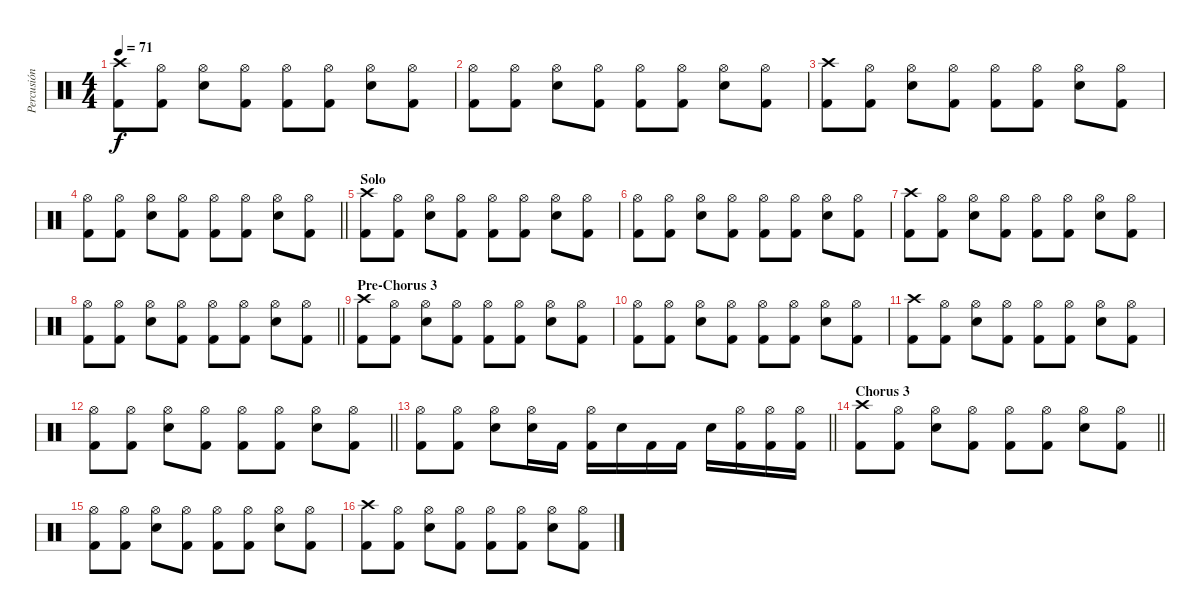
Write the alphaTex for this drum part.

\track ("Percusión" "Percusión") {instrument percussion}
\staff {score}
\articulation defaults
\ts (4 4)
\tempo 71
\clef neutral
\ks c
("Crash high (hit)" "Kick (hit) 2").8{dy f} ("Hi-Hat (open)" "Kick (hit) 2").8 ("Hi-Hat (open)" "Snare (hit) 2").8 ("Hi-Hat (open)" "Kick (hit) 2").8 ("Hi-Hat (open)" "Kick (hit) 2").8 ("Hi-Hat (open)" "Kick (hit) 2").8 ("Hi-Hat (open)" "Snare (hit) 2").8 ("Hi-Hat (open)" "Kick (hit) 2").8 |
("Hi-Hat (open)" "Kick (hit) 2").8 ("Hi-Hat (open)" "Kick (hit) 2").8 ("Hi-Hat (open)" "Snare (hit) 2").8 ("Hi-Hat (open)" "Kick (hit) 2").8 ("Hi-Hat (open)" "Kick (hit) 2").8 ("Hi-Hat (open)" "Kick (hit) 2").8 ("Hi-Hat (open)" "Snare (hit) 2").8 ("Hi-Hat (open)" "Kick (hit) 2").8 |
("Crash high (hit)" "Kick (hit) 2").8 ("Hi-Hat (open)" "Kick (hit) 2").8 ("Hi-Hat (open)" "Snare (hit) 2").8 ("Hi-Hat (open)" "Kick (hit) 2").8 ("Hi-Hat (open)" "Kick (hit) 2").8 ("Hi-Hat (open)" "Kick (hit) 2").8 ("Hi-Hat (open)" "Snare (hit) 2").8 ("Hi-Hat (open)" "Kick (hit) 2").8 |
\barLineRight lightlight
("Hi-Hat (open)" "Kick (hit) 2").8 ("Hi-Hat (open)" "Kick (hit) 2").8 ("Hi-Hat (open)" "Snare (hit) 2").8 ("Hi-Hat (open)" "Kick (hit) 2").8 ("Hi-Hat (open)" "Kick (hit) 2").8 ("Hi-Hat (open)" "Kick (hit) 2").8 ("Hi-Hat (open)" "Snare (hit) 2").8 ("Hi-Hat (open)" "Kick (hit) 2").8 |
\section ("" "Solo")
("Crash high (hit)" "Kick (hit) 2").8 ("Hi-Hat (open)" "Kick (hit) 2").8 ("Hi-Hat (open)" "Snare (hit) 2").8 ("Hi-Hat (open)" "Kick (hit) 2").8 ("Hi-Hat (open)" "Kick (hit) 2").8 ("Hi-Hat (open)" "Kick (hit) 2").8 ("Hi-Hat (open)" "Snare (hit) 2").8 ("Hi-Hat (open)" "Kick (hit) 2").8 |
("Hi-Hat (open)" "Kick (hit) 2").8 ("Hi-Hat (open)" "Kick (hit) 2").8 ("Hi-Hat (open)" "Snare (hit) 2").8 ("Hi-Hat (open)" "Kick (hit) 2").8 ("Hi-Hat (open)" "Kick (hit) 2").8 ("Hi-Hat (open)" "Kick (hit) 2").8 ("Hi-Hat (open)" "Snare (hit) 2").8 ("Hi-Hat (open)" "Kick (hit) 2").8 |
("Crash high (hit)" "Kick (hit) 2").8 ("Hi-Hat (open)" "Kick (hit) 2").8 ("Hi-Hat (open)" "Snare (hit) 2").8 ("Hi-Hat (open)" "Kick (hit) 2").8 ("Hi-Hat (open)" "Kick (hit) 2").8 ("Hi-Hat (open)" "Kick (hit) 2").8 ("Hi-Hat (open)" "Snare (hit) 2").8 ("Hi-Hat (open)" "Kick (hit) 2").8 |
\barLineRight lightlight
("Hi-Hat (open)" "Kick (hit) 2").8 ("Hi-Hat (open)" "Kick (hit) 2").8 ("Hi-Hat (open)" "Snare (hit) 2").8 ("Hi-Hat (open)" "Kick (hit) 2").8 ("Hi-Hat (open)" "Kick (hit) 2").8 ("Hi-Hat (open)" "Kick (hit) 2").8 ("Hi-Hat (open)" "Snare (hit) 2").8 ("Hi-Hat (open)" "Kick (hit) 2").8 |
\section ("" "Pre-Chorus 3")
("Crash high (hit)" "Kick (hit) 2").8 ("Hi-Hat (open)" "Kick (hit) 2").8 ("Hi-Hat (open)" "Snare (hit) 2").8 ("Hi-Hat (open)" "Kick (hit) 2").8 ("Hi-Hat (open)" "Kick (hit) 2").8 ("Hi-Hat (open)" "Kick (hit) 2").8 ("Hi-Hat (open)" "Snare (hit) 2").8 ("Hi-Hat (open)" "Kick (hit) 2").8 |
("Hi-Hat (open)" "Kick (hit) 2").8 ("Hi-Hat (open)" "Kick (hit) 2").8 ("Hi-Hat (open)" "Snare (hit) 2").8 ("Hi-Hat (open)" "Kick (hit) 2").8 ("Hi-Hat (open)" "Kick (hit) 2").8 ("Hi-Hat (open)" "Kick (hit) 2").8 ("Hi-Hat (open)" "Snare (hit) 2").8 ("Hi-Hat (open)" "Kick (hit) 2").8 |
("Crash high (hit)" "Kick (hit) 2").8 ("Hi-Hat (open)" "Kick (hit) 2").8 ("Hi-Hat (open)" "Snare (hit) 2").8 ("Hi-Hat (open)" "Kick (hit) 2").8 ("Hi-Hat (open)" "Kick (hit) 2").8 ("Hi-Hat (open)" "Kick (hit) 2").8 ("Hi-Hat (open)" "Snare (hit) 2").8 ("Hi-Hat (open)" "Kick (hit) 2").8 |
\barLineRight lightlight
("Hi-Hat (open)" "Kick (hit) 2").8 ("Hi-Hat (open)" "Kick (hit) 2").8 ("Hi-Hat (open)" "Snare (hit) 2").8 ("Hi-Hat (open)" "Kick (hit) 2").8 ("Hi-Hat (open)" "Kick (hit) 2").8 ("Hi-Hat (open)" "Kick (hit) 2").8 ("Hi-Hat (open)" "Snare (hit) 2").8 ("Hi-Hat (open)" "Kick (hit) 2").8 |
\barLineRight lightlight
("Hi-Hat (open)" "Kick (hit) 2").8 ("Hi-Hat (open)" "Kick (hit) 2").8 ("Hi-Hat (open)" "Snare (hit) 2").8 ("Hi-Hat (open)" "Snare (hit) 2").16 "Kick (hit) 2".16 ("Hi-Hat (open)" "Kick (hit) 2").16 "Snare (hit) 2".16 "Kick (hit) 2".16 "Kick (hit) 2".16 "Snare (hit) 2".16 ("Hi-Hat (open)" "Kick (hit) 2").16 ("Hi-Hat (open)" "Kick (hit) 2").16 ("Hi-Hat (open)" "Kick (hit) 2").16 |
\section ("" "Chorus 3")
\barLineRight lightlight
("Crash high (hit)" "Kick (hit) 2").8 ("Hi-Hat (open)" "Kick (hit) 2").8 ("Hi-Hat (open)" "Snare (hit) 2").8 ("Hi-Hat (open)" "Kick (hit) 2").8 ("Hi-Hat (open)" "Kick (hit) 2").8 ("Hi-Hat (open)" "Kick (hit) 2").8 ("Hi-Hat (open)" "Snare (hit) 2").8 ("Hi-Hat (open)" "Kick (hit) 2").8 |
("Hi-Hat (open)" "Kick (hit) 2").8 ("Hi-Hat (open)" "Kick (hit) 2").8 ("Hi-Hat (open)" "Snare (hit) 2").8 ("Hi-Hat (open)" "Kick (hit) 2").8 ("Hi-Hat (open)" "Kick (hit) 2").8 ("Hi-Hat (open)" "Kick (hit) 2").8 ("Hi-Hat (open)" "Snare (hit) 2").8 ("Hi-Hat (open)" "Kick (hit) 2").8 |
("Crash high (hit)" "Kick (hit) 2").8 ("Hi-Hat (open)" "Kick (hit) 2").8 ("Hi-Hat (open)" "Snare (hit) 2").8 ("Hi-Hat (open)" "Kick (hit) 2").8 ("Hi-Hat (open)" "Kick (hit) 2").8 ("Hi-Hat (open)" "Kick (hit) 2").8 ("Hi-Hat (open)" "Snare (hit) 2").8 ("Hi-Hat (open)" "Kick (hit) 2").8
